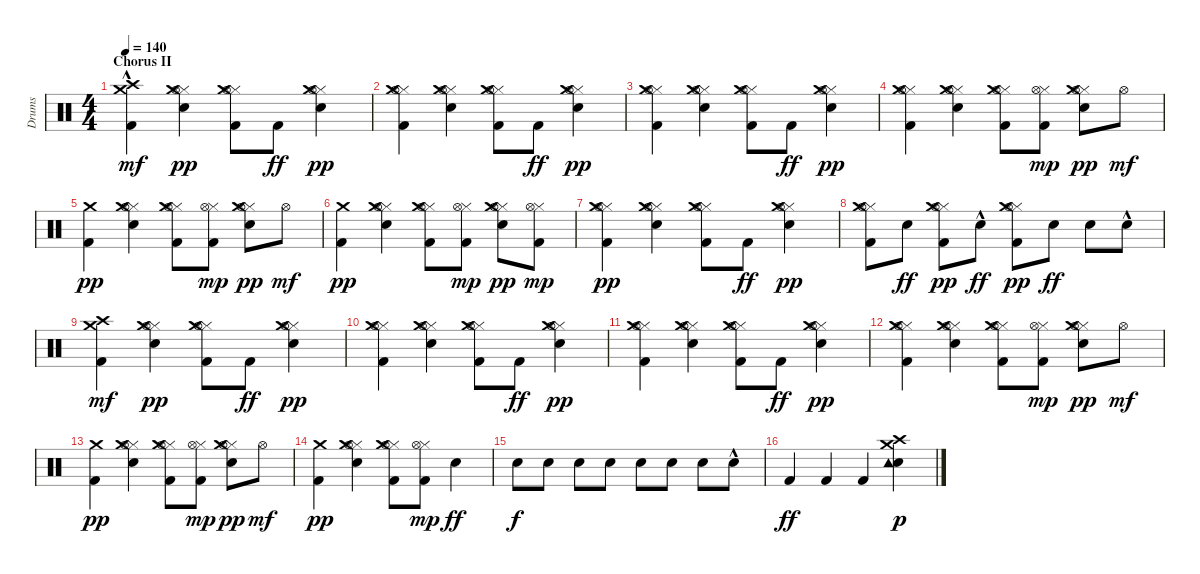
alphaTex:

\track ("Drums" "Drums") {instrument percussion}
\staff {score}
\articulation defaults
\ts (4 4)
\section ("" "Chorus II")
\tempo 140
\clef neutral
\ks c
("Kick (hit) 2"{hac} "Crash high (hit)" "Crash medium (hit)").4{dy mf} ("Snare (hit) 2" "Hi-Hat (closed)" "Hi-Hat (open)" "Crash medium (hit)").4{dy pp} ("Kick (hit) 2" "Hi-Hat (closed)" "Hi-Hat (open)" "Crash medium (hit)").8 "Kick (hit) 2".8{dy ff} ("Snare (hit) 2" "Hi-Hat (closed)" "Hi-Hat (open)" "Crash medium (hit)").4{dy pp} |
("Kick (hit) 2" "Hi-Hat (closed)" "Hi-Hat (open)" "Crash medium (hit)").4 ("Snare (hit) 2" "Hi-Hat (closed)" "Hi-Hat (open)" "Crash medium (hit)").4 ("Kick (hit) 2" "Hi-Hat (closed)" "Hi-Hat (open)" "Crash medium (hit)").8 "Kick (hit) 2".8{dy ff} ("Snare (hit) 2" "Hi-Hat (closed)" "Hi-Hat (open)" "Crash medium (hit)").4{dy pp} |
("Kick (hit) 2" "Hi-Hat (closed)" "Hi-Hat (open)" "Crash medium (hit)").4 ("Snare (hit) 2" "Hi-Hat (closed)" "Hi-Hat (open)" "Crash medium (hit)").4 ("Kick (hit) 2" "Hi-Hat (closed)" "Hi-Hat (open)" "Crash medium (hit)").8 "Kick (hit) 2".8{dy ff} ("Snare (hit) 2" "Hi-Hat (closed)" "Hi-Hat (open)" "Crash medium (hit)").4{dy pp} |
("Kick (hit) 2" "Hi-Hat (closed)" "Hi-Hat (open)" "Crash medium (hit)").4 ("Snare (hit) 2" "Hi-Hat (closed)" "Hi-Hat (open)" "Crash medium (hit)").4 ("Kick (hit) 2" "Hi-Hat (closed)" "Hi-Hat (open)" "Crash medium (hit)").8 ("Kick (hit) 2" "Hi-Hat (closed)" "Hi-Hat (open)").8{dy mp} ("Snare (hit) 2" "Hi-Hat (closed)" "Hi-Hat (open)" "Crash medium (hit)").8{dy pp} "Hi-Hat (open)".8{dy mf} |
("Kick (hit) 2" "Crash medium (hit)").4{dy pp} ("Snare (hit) 2" "Hi-Hat (closed)" "Hi-Hat (open)" "Crash medium (hit)").4 ("Kick (hit) 2" "Hi-Hat (closed)" "Hi-Hat (open)" "Crash medium (hit)").8 ("Kick (hit) 2" "Hi-Hat (closed)" "Hi-Hat (open)").8{dy mp} ("Snare (hit) 2" "Hi-Hat (closed)" "Hi-Hat (open)" "Crash medium (hit)").8{dy pp} "Hi-Hat (open)".8{dy mf} |
("Kick (hit) 2" "Crash medium (hit)").4{dy pp} ("Snare (hit) 2" "Hi-Hat (closed)" "Hi-Hat (open)" "Crash medium (hit)").4 ("Kick (hit) 2" "Hi-Hat (closed)" "Hi-Hat (open)" "Crash medium (hit)").8 ("Kick (hit) 2" "Hi-Hat (closed)" "Hi-Hat (open)").8{dy mp} ("Snare (hit) 2" "Hi-Hat (closed)" "Hi-Hat (open)" "Crash medium (hit)").8{dy pp} ("Hi-Hat (closed)" "Kick (hit) 2" "Hi-Hat (open)").8{dy mp} |
("Kick (hit) 2" "Hi-Hat (closed)" "Hi-Hat (open)" "Crash medium (hit)").4{dy pp} ("Snare (hit) 2" "Hi-Hat (closed)" "Hi-Hat (open)" "Crash medium (hit)").4 ("Kick (hit) 2" "Hi-Hat (closed)" "Hi-Hat (open)" "Crash medium (hit)").8 "Kick (hit) 2".8{dy ff} ("Snare (hit) 2" "Hi-Hat (closed)" "Hi-Hat (open)" "Crash medium (hit)").4{dy pp} |
("Kick (hit) 2" "Hi-Hat (closed)" "Hi-Hat (open)" "Crash medium (hit)").8 "Snare (hit) 2".8{dy ff} ("Hi-Hat (closed)" "Hi-Hat (open)" "Kick (hit) 2" "Crash medium (hit)").8{dy pp} "Snare (hit) 2"{hac}.8{dy ff} ("Kick (hit) 2" "Hi-Hat (closed)" "Hi-Hat (open)" "Crash medium (hit)").8{dy pp} "Snare (hit) 2".8{dy ff} "Snare (hit) 2".8 "Snare (hit) 2"{hac}.8 |
("Kick (hit) 2" "Crash high (hit)" "Crash medium (hit)").4{dy mf} ("Snare (hit) 2" "Hi-Hat (closed)" "Hi-Hat (open)" "Crash medium (hit)").4{dy pp} ("Kick (hit) 2" "Hi-Hat (closed)" "Hi-Hat (open)" "Crash medium (hit)").8 "Kick (hit) 2".8{dy ff} ("Snare (hit) 2" "Hi-Hat (closed)" "Hi-Hat (open)" "Crash medium (hit)").4{dy pp} |
("Kick (hit) 2" "Hi-Hat (closed)" "Hi-Hat (open)" "Crash medium (hit)").4 ("Snare (hit) 2" "Hi-Hat (closed)" "Hi-Hat (open)" "Crash medium (hit)").4 ("Kick (hit) 2" "Hi-Hat (closed)" "Hi-Hat (open)" "Crash medium (hit)").8 "Kick (hit) 2".8{dy ff} ("Snare (hit) 2" "Hi-Hat (closed)" "Hi-Hat (open)" "Crash medium (hit)").4{dy pp} |
("Kick (hit) 2" "Hi-Hat (closed)" "Hi-Hat (open)" "Crash medium (hit)").4 ("Snare (hit) 2" "Hi-Hat (closed)" "Hi-Hat (open)" "Crash medium (hit)").4 ("Kick (hit) 2" "Hi-Hat (closed)" "Hi-Hat (open)" "Crash medium (hit)").8 "Kick (hit) 2".8{dy ff} ("Snare (hit) 2" "Hi-Hat (closed)" "Hi-Hat (open)" "Crash medium (hit)").4{dy pp} |
("Kick (hit) 2" "Hi-Hat (closed)" "Hi-Hat (open)" "Crash medium (hit)").4 ("Snare (hit) 2" "Hi-Hat (closed)" "Hi-Hat (open)" "Crash medium (hit)").4 ("Kick (hit) 2" "Hi-Hat (closed)" "Hi-Hat (open)" "Crash medium (hit)").8 ("Kick (hit) 2" "Hi-Hat (closed)" "Hi-Hat (open)").8{dy mp} ("Snare (hit) 2" "Hi-Hat (closed)" "Hi-Hat (open)" "Crash medium (hit)").8{dy pp} "Hi-Hat (open)".8{dy mf} |
("Kick (hit) 2" "Crash medium (hit)").4{dy pp} ("Snare (hit) 2" "Hi-Hat (closed)" "Hi-Hat (open)" "Crash medium (hit)").4 ("Kick (hit) 2" "Hi-Hat (closed)" "Hi-Hat (open)" "Crash medium (hit)").8 ("Kick (hit) 2" "Hi-Hat (closed)" "Hi-Hat (open)").8{dy mp} ("Snare (hit) 2" "Hi-Hat (closed)" "Hi-Hat (open)" "Crash medium (hit)").8{dy pp} "Hi-Hat (open)".8{dy mf} |
("Kick (hit) 2" "Crash medium (hit)").4{dy pp} ("Snare (hit) 2" "Hi-Hat (closed)" "Hi-Hat (open)" "Crash medium (hit)").4 ("Kick (hit) 2" "Hi-Hat (closed)" "Hi-Hat (open)" "Crash medium (hit)").8 ("Kick (hit) 2" "Hi-Hat (closed)" "Hi-Hat (open)").8{dy mp} "Snare (hit) 2".4{dy ff} |
"Snare (hit) 2".8{dy f} "Snare (hit) 2".8 "Snare (hit) 2".8 "Snare (hit) 2".8 "Snare (hit) 2".8 "Snare (hit) 2".8 "Snare (hit) 2".8 "Snare (hit) 2"{hac}.8 |
"Kick (hit) 2".4{dy ff} "Kick (hit) 2".4 "Kick (hit) 2".4 ("Snare (hit) 2" "Crash high (hit)" "Tambourine (hit)" "Crash medium (hit)").4{dy p}
